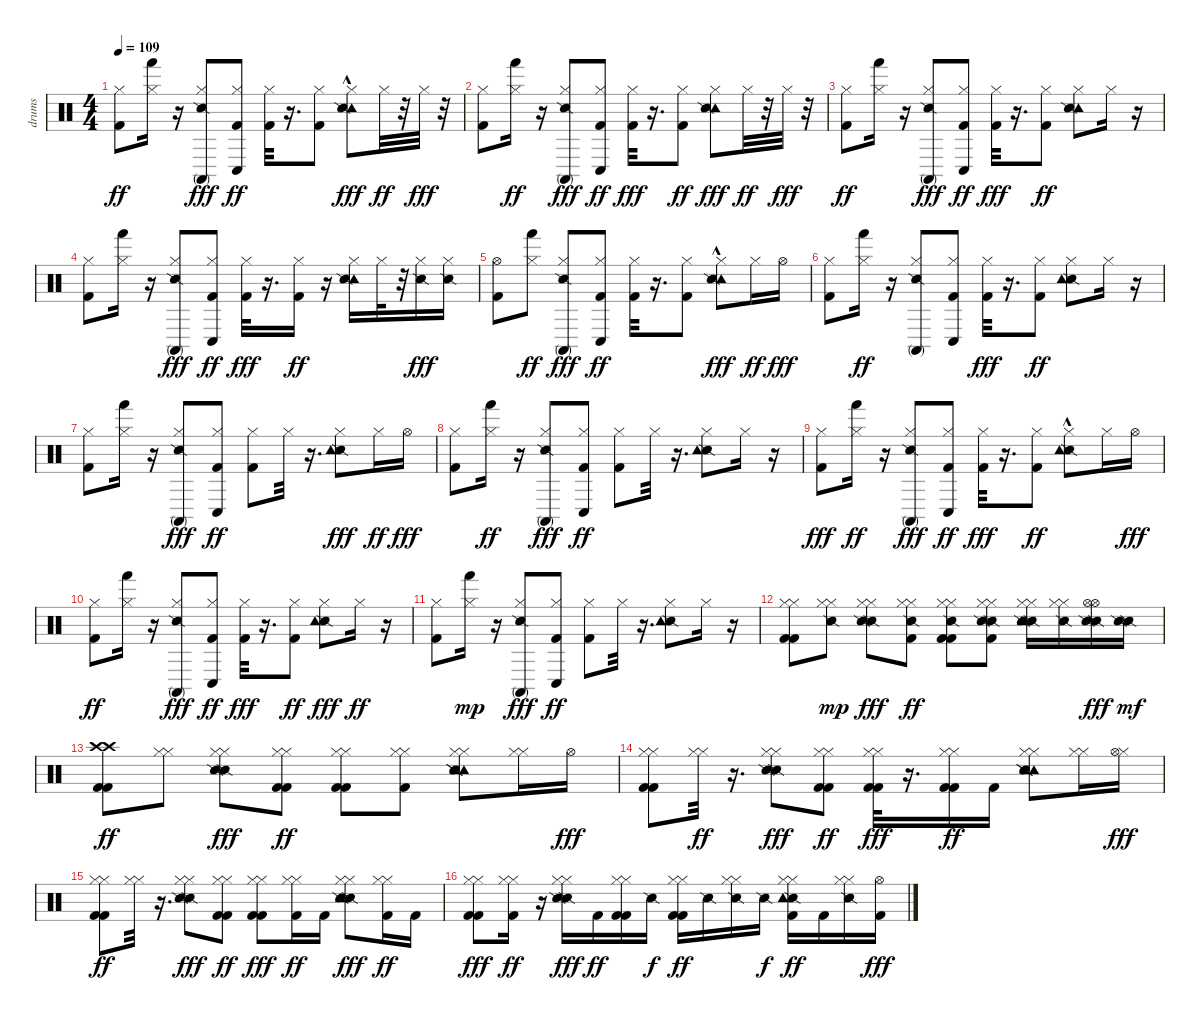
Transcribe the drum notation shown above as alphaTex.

\track ("drums" "drums") {instrument percussion}
\staff {score}
\articulation defaults
\ts (4 4)
\tempo 109
\clef neutral
\ks c
("Hi-Hat (closed)" "Kick (hit) 2").8{dy ff} ("Hi-Hat (closed)" "Hand (hit)").16 r.16 ("Conga high (mute)" "Hi-Hat (closed)" "Snare (side stick) 2").8{dy fff} ("Conga low (hit)" "Kick (hit) 2" "Hi-Hat (closed)").8{dy ff} ("Hi-Hat (closed)" "Kick (hit) 2").32 r.16{d} ("Kick (hit) 2" "Hi-Hat (closed)").8 ("Tambourine (hit)"{hac} "Hi-Hat (closed)" "Snare (side stick) 2").8{dy fff} "Hi-Hat (closed)".32{dy ff} r.32 "Hi-Hat (closed)".32{dy fff} r.32 |
("Kick (hit) 2" "Hi-Hat (closed)").8 ("Hand (hit)" "Hi-Hat (closed)").16{dy ff} r.16 ("Conga high (mute)" "Snare (side stick) 2" "Hi-Hat (closed)").8{dy fff} ("Hi-Hat (closed)" "Conga low (hit)" "Kick (hit) 2").8{dy ff} ("Kick (hit) 2" "Hi-Hat (closed)").32{dy fff} r.16{d} ("Hi-Hat (closed)" "Kick (hit) 2").8{dy ff} ("Tambourine (hit)" "Snare (side stick) 2" "Hi-Hat (closed)").8{dy fff} "Hi-Hat (closed)".32{dy ff} r.32 "Hi-Hat (closed)".32{dy fff} r.32 |
("Hi-Hat (closed)" "Kick (hit) 2").8{dy ff} ("Hand (hit)" "Hi-Hat (closed)").16 r.16 ("Conga high (mute)" "Snare (side stick) 2" "Hi-Hat (closed)").8{dy fff} ("Hi-Hat (closed)" "Conga low (hit)" "Kick (hit) 2").8{dy ff} ("Kick (hit) 2" "Hi-Hat (closed)").32{dy fff} r.16{d} ("Kick (hit) 2" "Hi-Hat (closed)").8{dy ff} ("Hi-Hat (closed)" "Tambourine (hit)" "Snare (side stick) 2").8 "Hi-Hat (closed)".16 r.16 |
("Hi-Hat (closed)" "Kick (hit) 2").8 ("Hand (hit)" "Hi-Hat (closed)").16 r.16 ("Conga high (mute)" "Snare (side stick) 2" "Hi-Hat (closed)").8{dy fff} ("Conga low (hit)" "Kick (hit) 2" "Hi-Hat (closed)").8{dy ff} ("Kick (hit) 2" "Hi-Hat (closed)").32{dy fff} r.16{d} ("Hi-Hat (closed)" "Kick (hit) 2").16{dy ff} r.16 ("Hi-Hat (closed)" "Tambourine (hit)" "Snare (side stick) 2").16 "Hi-Hat (closed)".32 r.32 ("Snare (side stick) 2" "Hi-Hat (closed)").16{dy fff} ("Snare (side stick) 2" "Hi-Hat (closed)").16 |
("Kick (hit) 2" "Hi-Hat (open)").8 ("Hand (hit)" "Hi-Hat (closed)").8{dy ff} ("Conga high (mute)" "Hi-Hat (closed)" "Snare (side stick) 2").8{dy fff} ("Hi-Hat (closed)" "Kick (hit) 2" "Conga low (hit)").8{dy ff} ("Hi-Hat (closed)" "Kick (hit) 2").32 r.16{d} ("Kick (hit) 2" "Hi-Hat (closed)").8 ("Tambourine (hit)"{hac} "Snare (side stick) 2" "Hi-Hat (closed)").8{dy fff} "Hi-Hat (closed)".16{dy ff} "Hi-Hat (open)".16{dy fff} |
("Kick (hit) 2" "Hi-Hat (closed)").8 ("Hi-Hat (closed)" "Hand (hit)").16{dy ff} r.16 ("Snare (side stick) 2" "Hi-Hat (closed)" "Conga high (mute)").8 ("Hi-Hat (closed)" "Kick (hit) 2" "Conga low (hit)").8 ("Kick (hit) 2" "Hi-Hat (closed)").32{dy fff} r.16{d} ("Hi-Hat (closed)" "Kick (hit) 2").8{dy ff} ("Snare (side stick) 2" "Hi-Hat (closed)" "Tambourine (hit)").8 "Hi-Hat (closed)".16 r.16 |
("Hi-Hat (closed)" "Kick (hit) 2").8 ("Hand (hit)" "Hi-Hat (closed)").16 r.16 ("Conga high (mute)" "Snare (side stick) 2" "Hi-Hat (closed)").8{dy fff} ("Kick (hit) 2" "Conga low (hit)" "Hi-Hat (closed)").8{dy ff} ("Hi-Hat (closed)" "Kick (hit) 2").8 "Hi-Hat (closed)".32 r.16{d} ("Snare (side stick) 2" "Tambourine (hit)" "Hi-Hat (closed)").8{dy fff} "Hi-Hat (closed)".16{dy ff} "Hi-Hat (open)".16{dy fff} |
("Kick (hit) 2" "Hi-Hat (closed)").8 ("Hand (hit)" "Hi-Hat (closed)").16{dy ff} r.16 ("Conga high (mute)" "Hi-Hat (closed)" "Snare (side stick) 2").8{dy fff} ("Kick (hit) 2" "Hi-Hat (closed)" "Conga low (hit)").8{dy ff} ("Hi-Hat (closed)" "Kick (hit) 2").8 "Hi-Hat (closed)".32 r.16{d} ("Snare (side stick) 2" "Hi-Hat (closed)" "Tambourine (hit)").8 "Hi-Hat (closed)".16 r.16 |
("Kick (hit) 2" "Hi-Hat (closed)").8{dy fff} ("Hi-Hat (closed)" "Hand (hit)").16{dy ff} r.16 ("Conga high (mute)" "Snare (side stick) 2" "Hi-Hat (closed)").8{dy fff} ("Hi-Hat (closed)" "Conga low (hit)" "Kick (hit) 2").8{dy ff} ("Kick (hit) 2" "Hi-Hat (closed)").32{dy fff} r.16{d} ("Kick (hit) 2" "Hi-Hat (closed)").8{dy ff} ("Hi-Hat (closed)" "Snare (side stick) 2" "Tambourine (hit)"{hac}).8 "Hi-Hat (closed)".16 "Hi-Hat (open)".16{dy fff} |
("Hi-Hat (closed)" "Kick (hit) 2").8{dy ff} ("Hand (hit)" "Hi-Hat (closed)").16 r.16 ("Conga high (mute)" "Hi-Hat (closed)" "Snare (side stick) 2").8{dy fff} ("Hi-Hat (closed)" "Kick (hit) 2" "Conga low (hit)").8{dy ff} ("Kick (hit) 2" "Hi-Hat (closed)").32{dy fff} r.16{d} ("Hi-Hat (closed)" "Kick (hit) 2").8{dy ff} ("Snare (side stick) 2" "Tambourine (hit)" "Hi-Hat (closed)").8{dy fff} "Hi-Hat (closed)".16{dy ff} r.16 |
("Hi-Hat (closed)" "Kick (hit) 2").8 ("Hi-Hat (closed)" "Hand (hit)").16{dy mp} r.16 ("Conga high (mute)" "Snare (side stick) 2" "Hi-Hat (closed)").8{dy fff} ("Kick (hit) 2" "Hi-Hat (closed)" "Conga low (hit)").8{dy ff} ("Hi-Hat (closed)" "Kick (hit) 2").8 "Hi-Hat (closed)".32 r.16{d} ("Snare (side stick) 2" "Hi-Hat (closed)" "Tambourine (hit)").8 "Hi-Hat (closed)".16 r.16 |
("Hi-Hat (closed)" "Kick (hit) 2" "Hi-Hat (closed)" "Kick (hit) 2").8 ("Hi-Hat (closed)" "Hi-Hat (closed)" "Snare (side stick) 2").8{dy mp} ("Snare (side stick) 2" "Hi-Hat (closed)" "Hi-Hat (closed)" "Snare (side stick) 2").8{dy fff} ("Snare (side stick) 2" "Hi-Hat (closed)" "Kick (hit) 2" "Hi-Hat (closed)").8{dy ff} ("Kick (hit) 2" "Hi-Hat (closed)" "Snare (side stick) 2" "Hi-Hat (closed)" "Kick (hit) 2").8 ("Kick (hit) 2" "Snare (side stick) 2" "Hi-Hat (closed)" "Hi-Hat (closed)" "Snare (side stick) 2").8 ("Hi-Hat (closed)" "Snare (side stick) 2" "Tambourine (hit)" "Snare (side stick) 2" "Hi-Hat (closed)" "Tambourine (hit)").16 ("Snare (side stick) 2" "Hi-Hat (closed)" "Hi-Hat (closed)").16 ("Snare (side stick) 2" "Snare (side stick) 2" "Hi-Hat (open)" "Hi-Hat (open)").16{dy fff} ("Snare (side stick) 2" "Snare (side stick) 2").16{dy mf} |
("Crash high (hit)" "Kick (hit) 2" "Kick (hit) 2" "Crash high (hit)").8{dy ff} ("Hi-Hat (closed)" "Hi-Hat (closed)").8 ("Snare (side stick) 2" "Hi-Hat (closed)" "Snare (side stick) 2" "Hi-Hat (closed)").8{dy fff} ("Kick (hit) 2" "Hi-Hat (closed)" "Hi-Hat (closed)" "Kick (hit) 2").8{dy ff} ("Hi-Hat (closed)" "Kick (hit) 2" "Hi-Hat (closed)" "Kick (hit) 2").8 ("Hi-Hat (closed)" "Kick (hit) 2" "Hi-Hat (closed)").8 ("Hi-Hat (closed)" "Hi-Hat (closed)" "Tambourine (hit)" "Snare (side stick) 2" "Tambourine (hit)" "Snare (side stick) 2").8 ("Hi-Hat (closed)" "Hi-Hat (closed)").16 "Hi-Hat (open)".16{dy fff} |
("Hi-Hat (closed)" "Kick (hit) 2" "Kick (hit) 2" "Hi-Hat (closed)").8 ("Hi-Hat (closed)" "Hi-Hat (closed)").32{dy ff} r.16{d} ("Hi-Hat (closed)" "Hi-Hat (closed)" "Snare (side stick) 2" "Snare (side stick) 2").8{dy fff} ("Hi-Hat (closed)" "Kick (hit) 2" "Kick (hit) 2" "Hi-Hat (closed)").8{dy ff} ("Kick (hit) 2" "Hi-Hat (closed)" "Kick (hit) 2" "Hi-Hat (closed)").32{dy fff} r.16{d} ("Hi-Hat (closed)" "Kick (hit) 2" "Hi-Hat (closed)" "Kick (hit) 2").16{dy ff} "Kick (hit) 2".16 ("Hi-Hat (closed)" "Tambourine (hit)" "Hi-Hat (closed)" "Snare (side stick) 2" "Tambourine (hit)" "Snare (side stick) 2").8 ("Hi-Hat (closed)" "Hi-Hat (closed)").16 ("Hi-Hat (closed)" "Hi-Hat (open)").16{dy fff} |
("Kick (hit) 2" "Hi-Hat (closed)" "Hi-Hat (closed)" "Kick (hit) 2").8{dy ff} ("Hi-Hat (closed)" "Hi-Hat (closed)").32 r.16{d} ("Hi-Hat (closed)" "Snare (side stick) 2" "Hi-Hat (closed)" "Snare (side stick) 2").8{dy fff} ("Hi-Hat (closed)" "Hi-Hat (closed)" "Kick (hit) 2" "Kick (hit) 2").8{dy ff} ("Hi-Hat (closed)" "Kick (hit) 2" "Kick (hit) 2" "Hi-Hat (closed)").8{dy fff} ("Hi-Hat (closed)" "Hi-Hat (closed)" "Kick (hit) 2").16{dy ff} "Kick (hit) 2".16 ("Snare (side stick) 2" "Tambourine (hit)" "Tambourine (hit)" "Hi-Hat (closed)" "Snare (side stick) 2" "Hi-Hat (closed)").8{dy fff} ("Hi-Hat (closed)" "Kick (hit) 2" "Hi-Hat (closed)").16{dy ff} "Kick (hit) 2".16 |
("Hi-Hat (closed)" "Kick (hit) 2" "Kick (hit) 2" "Hi-Hat (closed)").8{dy fff} ("Hi-Hat (closed)" "Kick (hit) 2" "Hi-Hat (closed)").16{dy ff} r.16 ("Snare (side stick) 2" "Hi-Hat (closed)" "Snare (side stick) 2" "Hi-Hat (closed)").16{dy fff} "Kick (hit) 2".16{dy ff} ("Kick (hit) 2" "Hi-Hat (closed)" "Kick (hit) 2" "Hi-Hat (closed)").16 "Snare (side stick) 2".16{dy f} ("Hi-Hat (closed)" "Hi-Hat (closed)" "Kick (hit) 2" "Kick (hit) 2").16{dy ff} "Snare (side stick) 2".16 ("Snare (side stick) 2" "Hi-Hat (closed)" "Hi-Hat (closed)").16 "Snare (side stick) 2".16{dy f} ("Snare (side stick) 2" "Kick (hit) 2" "Hi-Hat (closed)" "Tambourine (hit)" "Hi-Hat (closed)" "Tambourine (hit)").16{dy ff} "Kick (hit) 2".16 ("Snare (side stick) 2" "Hi-Hat (closed)" "Hi-Hat (closed)").16 ("Kick (hit) 2" "Hi-Hat (open)").16{dy fff}
